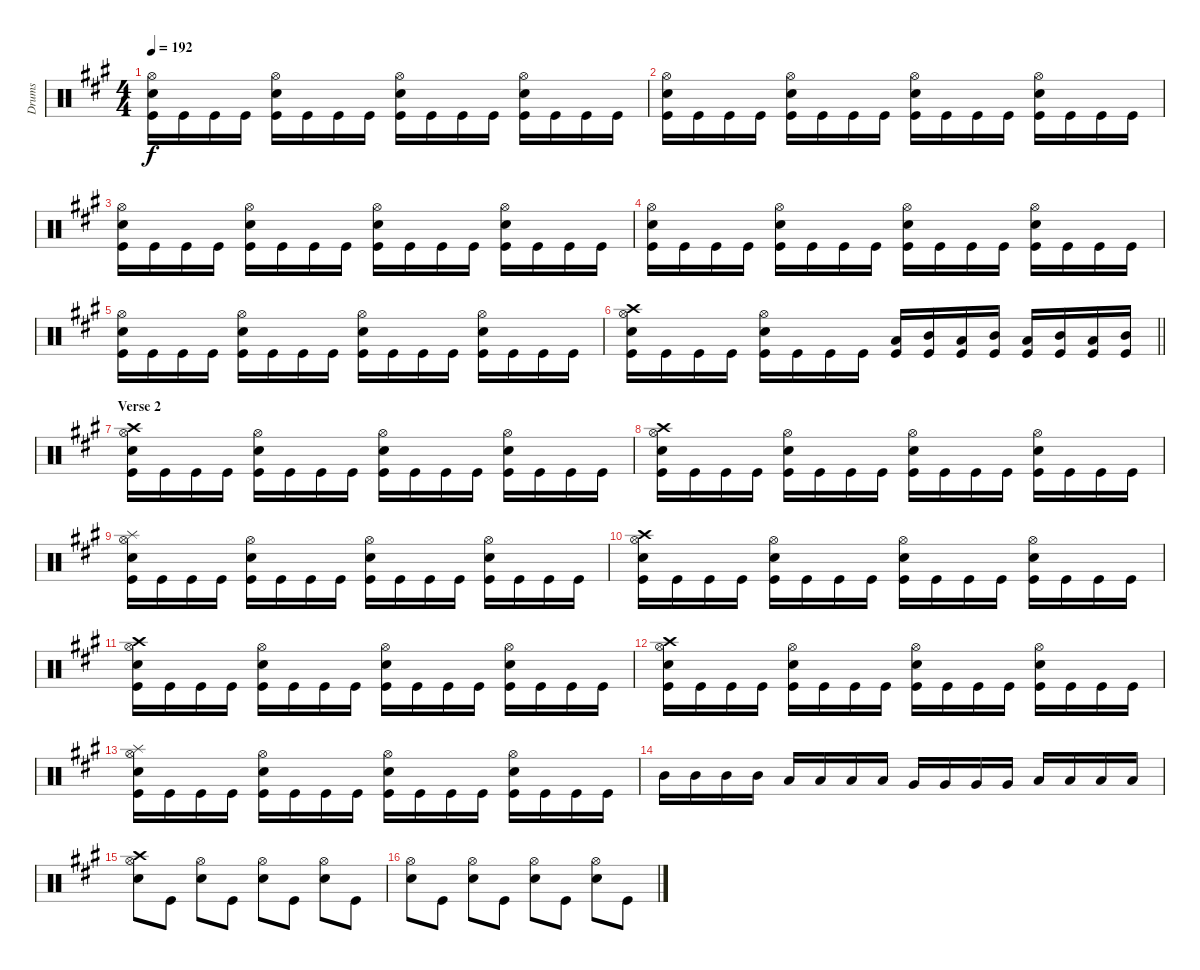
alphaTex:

\track ("Drums" "Drums") {instrument percussion}
\staff {score}
\articulation defaults
\ts (4 4)
\tempo 192
\clef neutral
\ks f#minor
("Hi-Hat (open)" "Snare (hit) 2" "Kick (hit)").16{dy f} "Kick (hit)".16 "Kick (hit)".16 "Kick (hit)".16 ("Hi-Hat (open)" "Snare (hit) 2" "Kick (hit)").16 "Kick (hit)".16 "Kick (hit)".16 "Kick (hit)".16 ("Hi-Hat (open)" "Snare (hit) 2" "Kick (hit)").16 "Kick (hit)".16 "Kick (hit)".16 "Kick (hit)".16 ("Hi-Hat (open)" "Snare (hit) 2" "Kick (hit)").16 "Kick (hit)".16 "Kick (hit)".16 "Kick (hit)".16 |
("Hi-Hat (open)" "Snare (hit) 2" "Kick (hit)").16 "Kick (hit)".16 "Kick (hit)".16 "Kick (hit)".16 ("Hi-Hat (open)" "Snare (hit) 2" "Kick (hit)").16 "Kick (hit)".16 "Kick (hit)".16 "Kick (hit)".16 ("Hi-Hat (open)" "Snare (hit) 2" "Kick (hit)").16 "Kick (hit)".16 "Kick (hit)".16 "Kick (hit)".16 ("Hi-Hat (open)" "Snare (hit) 2" "Kick (hit)").16 "Kick (hit)".16 "Kick (hit)".16 "Kick (hit)".16 |
("Hi-Hat (open)" "Snare (hit) 2" "Kick (hit)").16 "Kick (hit)".16 "Kick (hit)".16 "Kick (hit)".16 ("Hi-Hat (open)" "Snare (hit) 2" "Kick (hit)").16 "Kick (hit)".16 "Kick (hit)".16 "Kick (hit)".16 ("Hi-Hat (open)" "Snare (hit) 2" "Kick (hit)").16 "Kick (hit)".16 "Kick (hit)".16 "Kick (hit)".16 ("Hi-Hat (open)" "Snare (hit) 2" "Kick (hit)").16 "Kick (hit)".16 "Kick (hit)".16 "Kick (hit)".16 |
("Hi-Hat (open)" "Snare (hit) 2" "Kick (hit)").16 "Kick (hit)".16 "Kick (hit)".16 "Kick (hit)".16 ("Hi-Hat (open)" "Snare (hit) 2" "Kick (hit)").16 "Kick (hit)".16 "Kick (hit)".16 "Kick (hit)".16 ("Hi-Hat (open)" "Snare (hit) 2" "Kick (hit)").16 "Kick (hit)".16 "Kick (hit)".16 "Kick (hit)".16 ("Hi-Hat (open)" "Snare (hit) 2" "Kick (hit)").16 "Kick (hit)".16 "Kick (hit)".16 "Kick (hit)".16 |
("Hi-Hat (open)" "Snare (hit) 2" "Kick (hit)").16 "Kick (hit)".16 "Kick (hit)".16 "Kick (hit)".16 ("Hi-Hat (open)" "Snare (hit) 2" "Kick (hit)").16 "Kick (hit)".16 "Kick (hit)".16 "Kick (hit)".16 ("Hi-Hat (open)" "Snare (hit) 2" "Kick (hit)").16 "Kick (hit)".16 "Kick (hit)".16 "Kick (hit)".16 ("Hi-Hat (open)" "Snare (hit) 2" "Kick (hit)").16 "Kick (hit)".16 "Kick (hit)".16 "Kick (hit)".16 |
\barLineRight lightlight
("Crash high (hit)" "Hi-Hat (open)" "Snare (hit) 2" "Kick (hit)").16 "Kick (hit)".16 "Kick (hit)".16 "Kick (hit)".16 ("Hi-Hat (open)" "Snare (hit) 2" "Kick (hit)").16 "Kick (hit)".16 "Kick (hit)".16 "Kick (hit)".16 ("Low Tom (hit)" "Kick (hit)").16 ("Mid Tom (hit)" "Kick (hit)").16 ("Low Tom (hit)" "Kick (hit)").16 ("Mid Tom (hit)" "Kick (hit)").16 ("Low Tom (hit)" "Kick (hit)").16 ("Mid Tom (hit)" "Kick (hit)").16 ("Low Tom (hit)" "Kick (hit)").16 ("Mid Tom (hit)" "Kick (hit)").16 |
\section ("" "Verse 2")
("Crash high (hit)" "Hi-Hat (open)" "Snare (hit) 2" "Kick (hit)").16 "Kick (hit)".16 "Kick (hit)".16 "Kick (hit)".16 ("Hi-Hat (open)" "Snare (hit) 2" "Kick (hit)").16 "Kick (hit)".16 "Kick (hit)".16 "Kick (hit)".16 ("Hi-Hat (open)" "Snare (hit) 2" "Kick (hit)").16 "Kick (hit)".16 "Kick (hit)".16 "Kick (hit)".16 ("Hi-Hat (open)" "Snare (hit) 2" "Kick (hit)").16 "Kick (hit)".16 "Kick (hit)".16 "Kick (hit)".16 |
("Crash high (hit)" "Hi-Hat (open)" "Snare (hit) 2" "Kick (hit)").16 "Kick (hit)".16 "Kick (hit)".16 "Kick (hit)".16 ("Hi-Hat (open)" "Snare (hit) 2" "Kick (hit)").16 "Kick (hit)".16 "Kick (hit)".16 "Kick (hit)".16 ("Hi-Hat (open)" "Snare (hit) 2" "Kick (hit)").16 "Kick (hit)".16 "Kick (hit)".16 "Kick (hit)".16 ("Hi-Hat (open)" "Snare (hit) 2" "Kick (hit)").16 "Kick (hit)".16 "Kick (hit)".16 "Kick (hit)".16 |
("Splash (hit)" "Hi-Hat (open)" "Snare (hit) 2" "Kick (hit)").16 "Kick (hit)".16 "Kick (hit)".16 "Kick (hit)".16 ("Hi-Hat (open)" "Snare (hit) 2" "Kick (hit)").16 "Kick (hit)".16 "Kick (hit)".16 "Kick (hit)".16 ("Hi-Hat (open)" "Snare (hit) 2" "Kick (hit)").16 "Kick (hit)".16 "Kick (hit)".16 "Kick (hit)".16 ("Hi-Hat (open)" "Snare (hit) 2" "Kick (hit)").16 "Kick (hit)".16 "Kick (hit)".16 "Kick (hit)".16 |
("Crash high (hit)" "Hi-Hat (open)" "Snare (hit) 2" "Kick (hit)").16 "Kick (hit)".16 "Kick (hit)".16 "Kick (hit)".16 ("Hi-Hat (open)" "Snare (hit) 2" "Kick (hit)").16 "Kick (hit)".16 "Kick (hit)".16 "Kick (hit)".16 ("Hi-Hat (open)" "Snare (hit) 2" "Kick (hit)").16 "Kick (hit)".16 "Kick (hit)".16 "Kick (hit)".16 ("Hi-Hat (open)" "Snare (hit) 2" "Kick (hit)").16 "Kick (hit)".16 "Kick (hit)".16 "Kick (hit)".16 |
("Crash high (hit)" "Hi-Hat (open)" "Snare (hit) 2" "Kick (hit)").16 "Kick (hit)".16 "Kick (hit)".16 "Kick (hit)".16 ("Hi-Hat (open)" "Snare (hit) 2" "Kick (hit)").16 "Kick (hit)".16 "Kick (hit)".16 "Kick (hit)".16 ("Hi-Hat (open)" "Snare (hit) 2" "Kick (hit)").16 "Kick (hit)".16 "Kick (hit)".16 "Kick (hit)".16 ("Hi-Hat (open)" "Snare (hit) 2" "Kick (hit)").16 "Kick (hit)".16 "Kick (hit)".16 "Kick (hit)".16 |
("Crash high (hit)" "Hi-Hat (open)" "Snare (hit) 2" "Kick (hit)").16 "Kick (hit)".16 "Kick (hit)".16 "Kick (hit)".16 ("Hi-Hat (open)" "Snare (hit) 2" "Kick (hit)").16 "Kick (hit)".16 "Kick (hit)".16 "Kick (hit)".16 ("Hi-Hat (open)" "Snare (hit) 2" "Kick (hit)").16 "Kick (hit)".16 "Kick (hit)".16 "Kick (hit)".16 ("Hi-Hat (open)" "Snare (hit) 2" "Kick (hit)").16 "Kick (hit)".16 "Kick (hit)".16 "Kick (hit)".16 |
("Splash (hit)" "Hi-Hat (open)" "Snare (hit) 2" "Kick (hit)").16 "Kick (hit)".16 "Kick (hit)".16 "Kick (hit)".16 ("Hi-Hat (open)" "Snare (hit) 2" "Kick (hit)").16 "Kick (hit)".16 "Kick (hit)".16 "Kick (hit)".16 ("Hi-Hat (open)" "Snare (hit) 2" "Kick (hit)").16 "Kick (hit)".16 "Kick (hit)".16 "Kick (hit)".16 ("Hi-Hat (open)" "Snare (hit) 2" "Kick (hit)").16 "Kick (hit)".16 "Kick (hit)".16 "Kick (hit)".16 |
"Mid Tom (hit)".16 "Mid Tom (hit)".16 "Mid Tom (hit)".16 "Mid Tom (hit)".16 "Low Tom (hit)".16 "Low Tom (hit)".16 "Low Tom (hit)".16 "Low Tom (hit)".16 "Very Low Tom (hit)".16 "Very Low Tom (hit)".16 "Very Low Tom (hit)".16 "Very Low Tom (hit)".16 "Low Floor Tom (hit)".16 "Low Floor Tom (hit)".16 "Low Floor Tom (hit)".16 "Low Floor Tom (hit)".16 |
("Crash high (hit)" "Hi-Hat (open)" "Snare (hit) 2").8 "Kick (hit)".8 ("Hi-Hat (open)" "Snare (hit) 2").8 "Kick (hit)".8 ("Hi-Hat (open)" "Snare (hit) 2").8 "Kick (hit)".8 ("Hi-Hat (open)" "Snare (hit) 2").8 "Kick (hit)".8 |
("Hi-Hat (open)" "Snare (hit) 2").8 "Kick (hit)".8 ("Hi-Hat (open)" "Snare (hit) 2").8 "Kick (hit)".8 ("Hi-Hat (open)" "Snare (hit) 2").8 "Kick (hit)".8 ("Hi-Hat (open)" "Snare (hit) 2").8 "Kick (hit)".8
